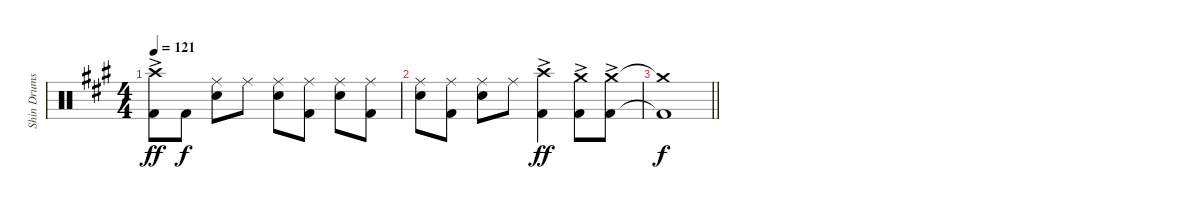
\track ("Shin Drums" "Shin Drums") {instrument percussion}
\staff {score}
\articulation defaults
\ts (4 4)
\tempo 121
\clef neutral
\ks a
("Crash high (hit)"{ac} "Kick (hit) 2"{ac}).8{dy ff} "Kick (hit) 2".8{dy f} ("Ride (middle)" "Snare (hit) 2").8 "Ride (middle)".8 ("Ride (middle)" "Snare (hit) 2").8 ("Ride (middle)" "Kick (hit) 2").8 ("Ride (middle)" "Snare (hit) 2").8 ("Ride (middle)" "Kick (hit) 2").8 |
("Ride (middle)" "Snare (hit) 2").8 ("Ride (middle)" "Kick (hit) 2").8 ("Ride (middle)" "Snare (hit) 2").8 "Ride (middle)".8 ("Crash high (hit)"{ac} "Kick (hit) 2"{ac}).4{dy ff} ("Crash medium (hit)"{ac} "Kick (hit) 2"{ac}).8 ("Crash medium (hit)"{ac} "Kick (hit) 2"{ac}).8 |
\barLineRight lightlight
("Crash medium (hit)"{t} "Kick (hit) 2"{t}).1{dy f}
